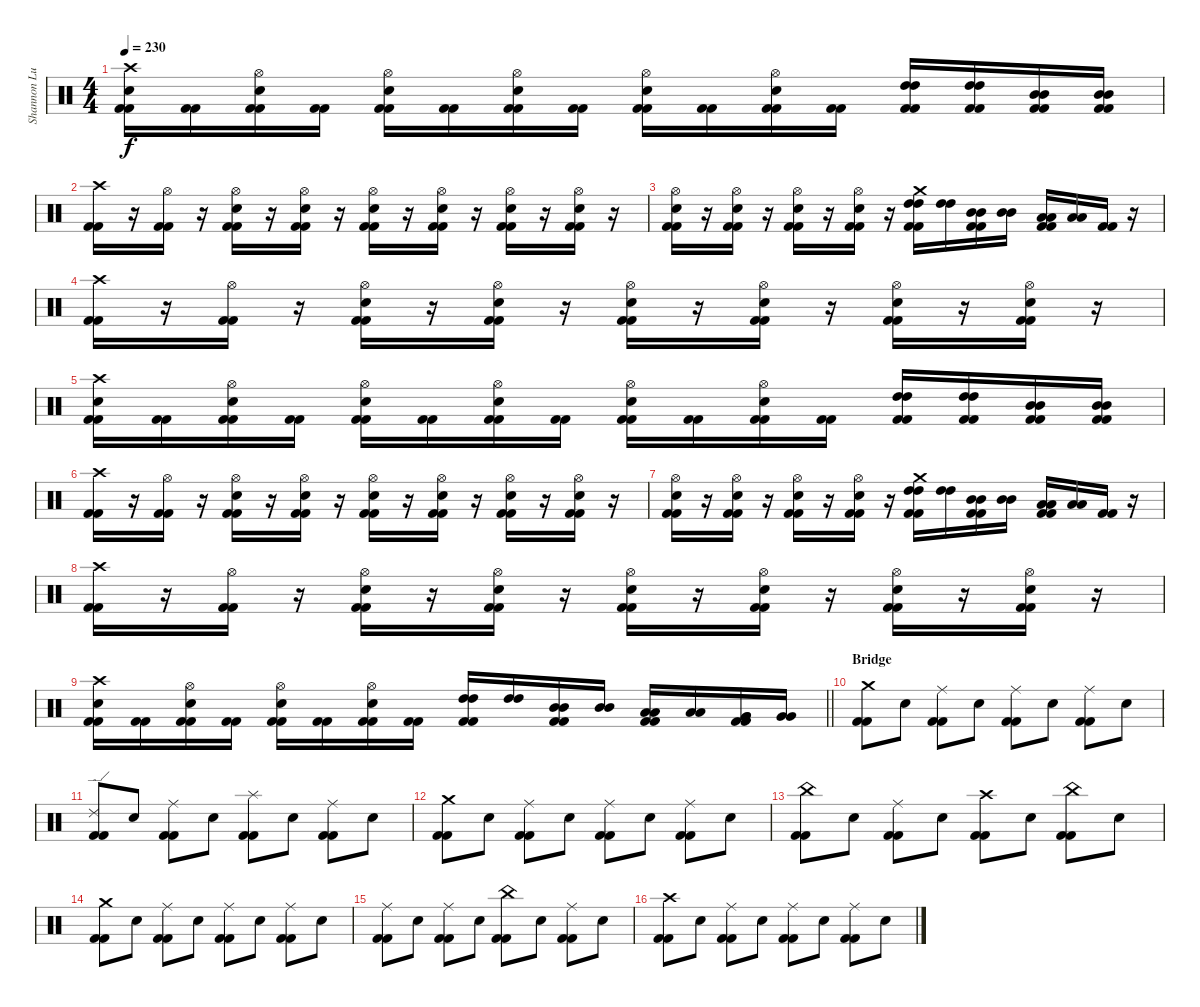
\track ("Shannon Lucas" "Shannon Lu") {instrument percussion}
\staff {score}
\articulation defaults
\ts (4 4)
\tempo 230
\clef neutral
\ks c
("Crash high (hit)" "Electric Snare (hit)" "Kick (hit) 2" "Kick (hit) 2").16{dy f} ("Kick (hit) 2" "Kick (hit) 2").16 ("Hi-Hat (open)" "Electric Snare (hit)" "Kick (hit) 2" "Kick (hit) 2").16 ("Kick (hit) 2" "Kick (hit) 2").16 ("Hi-Hat (open)" "Electric Snare (hit)" "Kick (hit) 2" "Kick (hit) 2").16 ("Kick (hit) 2" "Kick (hit) 2").16 ("Hi-Hat (open)" "Electric Snare (hit)" "Kick (hit) 2" "Kick (hit) 2").16 ("Kick (hit) 2" "Kick (hit) 2").16 ("Hi-Hat (open)" "Electric Snare (hit)" "Kick (hit) 2" "Kick (hit) 2").16 ("Kick (hit) 2" "Kick (hit) 2").16 ("Hi-Hat (open)" "Electric Snare (hit)" "Kick (hit) 2" "Kick (hit) 2").16 ("Kick (hit) 2" "Kick (hit) 2").16 ("High Tom (hit)" "High Tom (hit)" "Kick (hit) 2" "Kick (hit) 2").16 ("High Tom (hit)" "High Tom (hit)" "Kick (hit) 2" "Kick (hit) 2").16 ("Mid Tom (hit)" "Mid Tom (hit)" "Kick (hit) 2" "Kick (hit) 2").16 ("Mid Tom (hit)" "Mid Tom (hit)" "Kick (hit) 2" "Kick (hit) 2").16 |
("Crash high (hit)" "Kick (hit) 2" "Kick (hit) 2").16 r.16 ("Hi-Hat (open)" "Kick (hit) 2" "Kick (hit) 2").16 r.16 ("Hi-Hat (open)" "Electric Snare (hit)" "Kick (hit) 2" "Kick (hit) 2").16 r.16 ("Hi-Hat (open)" "Electric Snare (hit)" "Kick (hit) 2" "Kick (hit) 2").16 r.16 ("Hi-Hat (open)" "Electric Snare (hit)" "Kick (hit) 2" "Kick (hit) 2").16 r.16 ("Hi-Hat (open)" "Electric Snare (hit)" "Kick (hit) 2" "Kick (hit) 2").16 r.16 ("Hi-Hat (open)" "Electric Snare (hit)" "Kick (hit) 2" "Kick (hit) 2").16 r.16 ("Hi-Hat (open)" "Electric Snare (hit)" "Kick (hit) 2" "Kick (hit) 2").16 r.16 |
("Hi-Hat (open)" "Electric Snare (hit)" "Kick (hit) 2" "Kick (hit) 2").16 r.16 ("Hi-Hat (open)" "Electric Snare (hit)" "Kick (hit) 2" "Kick (hit) 2").16 r.16 ("Hi-Hat (open)" "Electric Snare (hit)" "Kick (hit) 2" "Kick (hit) 2").16 r.16 ("Hi-Hat (open)" "Electric Snare (hit)" "Kick (hit) 2" "Kick (hit) 2").16 r.16 ("Crash medium (hit)" "High Tom (hit)" "High Tom (hit)" "Kick (hit) 2" "Kick (hit) 2").16 ("High Tom (hit)" "High Tom (hit)").16 ("Mid Tom (hit)" "Mid Tom (hit)" "Kick (hit) 2" "Kick (hit) 2").16 ("Mid Tom (hit)" "Mid Tom (hit)").16 ("Low Tom (hit)" "Low Tom (hit)" "Kick (hit) 2" "Kick (hit) 2").16 ("Low Tom (hit)" "Low Tom (hit)").16 ("Kick (hit) 2" "Kick (hit) 2").16 r.16 |
("Crash high (hit)" "Kick (hit) 2" "Kick (hit) 2").16 r.16 ("Hi-Hat (open)" "Kick (hit) 2" "Kick (hit) 2").16 r.16 ("Hi-Hat (open)" "Electric Snare (hit)" "Kick (hit) 2" "Kick (hit) 2").16 r.16 ("Hi-Hat (open)" "Electric Snare (hit)" "Kick (hit) 2" "Kick (hit) 2").16 r.16 ("Hi-Hat (open)" "Electric Snare (hit)" "Kick (hit) 2" "Kick (hit) 2").16 r.16 ("Hi-Hat (open)" "Electric Snare (hit)" "Kick (hit) 2" "Kick (hit) 2").16 r.16 ("Hi-Hat (open)" "Electric Snare (hit)" "Kick (hit) 2" "Kick (hit) 2").16 r.16 ("Hi-Hat (open)" "Electric Snare (hit)" "Kick (hit) 2" "Kick (hit) 2").16 r.16 |
("Crash high (hit)" "Electric Snare (hit)" "Kick (hit) 2" "Kick (hit) 2").16 ("Kick (hit) 2" "Kick (hit) 2").16 ("Hi-Hat (open)" "Electric Snare (hit)" "Kick (hit) 2" "Kick (hit) 2").16 ("Kick (hit) 2" "Kick (hit) 2").16 ("Hi-Hat (open)" "Electric Snare (hit)" "Kick (hit) 2" "Kick (hit) 2").16 ("Kick (hit) 2" "Kick (hit) 2").16 ("Hi-Hat (open)" "Electric Snare (hit)" "Kick (hit) 2" "Kick (hit) 2").16 ("Kick (hit) 2" "Kick (hit) 2").16 ("Hi-Hat (open)" "Electric Snare (hit)" "Kick (hit) 2" "Kick (hit) 2").16 ("Kick (hit) 2" "Kick (hit) 2").16 ("Hi-Hat (open)" "Electric Snare (hit)" "Kick (hit) 2" "Kick (hit) 2").16 ("Kick (hit) 2" "Kick (hit) 2").16 ("High Tom (hit)" "High Tom (hit)" "Kick (hit) 2" "Kick (hit) 2").16 ("High Tom (hit)" "High Tom (hit)" "Kick (hit) 2" "Kick (hit) 2").16 ("Mid Tom (hit)" "Mid Tom (hit)" "Kick (hit) 2" "Kick (hit) 2").16 ("Mid Tom (hit)" "Mid Tom (hit)" "Kick (hit) 2" "Kick (hit) 2").16 |
("Crash high (hit)" "Kick (hit) 2" "Kick (hit) 2").16 r.16 ("Hi-Hat (open)" "Kick (hit) 2" "Kick (hit) 2").16 r.16 ("Hi-Hat (open)" "Electric Snare (hit)" "Kick (hit) 2" "Kick (hit) 2").16 r.16 ("Hi-Hat (open)" "Electric Snare (hit)" "Kick (hit) 2" "Kick (hit) 2").16 r.16 ("Hi-Hat (open)" "Electric Snare (hit)" "Kick (hit) 2" "Kick (hit) 2").16 r.16 ("Hi-Hat (open)" "Electric Snare (hit)" "Kick (hit) 2" "Kick (hit) 2").16 r.16 ("Hi-Hat (open)" "Electric Snare (hit)" "Kick (hit) 2" "Kick (hit) 2").16 r.16 ("Hi-Hat (open)" "Electric Snare (hit)" "Kick (hit) 2" "Kick (hit) 2").16 r.16 |
("Hi-Hat (open)" "Electric Snare (hit)" "Kick (hit) 2" "Kick (hit) 2").16 r.16 ("Hi-Hat (open)" "Electric Snare (hit)" "Kick (hit) 2" "Kick (hit) 2").16 r.16 ("Hi-Hat (open)" "Electric Snare (hit)" "Kick (hit) 2" "Kick (hit) 2").16 r.16 ("Hi-Hat (open)" "Electric Snare (hit)" "Kick (hit) 2" "Kick (hit) 2").16 r.16 ("Crash medium (hit)" "High Tom (hit)" "High Tom (hit)" "Kick (hit) 2" "Kick (hit) 2").16 ("High Tom (hit)" "High Tom (hit)").16 ("Mid Tom (hit)" "Mid Tom (hit)" "Kick (hit) 2" "Kick (hit) 2").16 ("Mid Tom (hit)" "Mid Tom (hit)").16 ("Low Tom (hit)" "Low Tom (hit)" "Kick (hit) 2" "Kick (hit) 2").16 ("Low Tom (hit)" "Low Tom (hit)").16 ("Kick (hit) 2" "Kick (hit) 2").16 r.16 |
("Crash high (hit)" "Kick (hit) 2" "Kick (hit) 2").16 r.16 ("Hi-Hat (open)" "Kick (hit) 2" "Kick (hit) 2").16 r.16 ("Hi-Hat (open)" "Electric Snare (hit)" "Kick (hit) 2" "Kick (hit) 2").16 r.16 ("Hi-Hat (open)" "Electric Snare (hit)" "Kick (hit) 2" "Kick (hit) 2").16 r.16 ("Hi-Hat (open)" "Electric Snare (hit)" "Kick (hit) 2" "Kick (hit) 2").16 r.16 ("Hi-Hat (open)" "Electric Snare (hit)" "Kick (hit) 2" "Kick (hit) 2").16 r.16 ("Hi-Hat (open)" "Electric Snare (hit)" "Kick (hit) 2" "Kick (hit) 2").16 r.16 ("Hi-Hat (open)" "Electric Snare (hit)" "Kick (hit) 2" "Kick (hit) 2").16 r.16 |
\barLineRight lightlight
("Crash high (hit)" "Electric Snare (hit)" "Kick (hit) 2" "Kick (hit) 2").16 ("Kick (hit) 2" "Kick (hit) 2").16 ("Hi-Hat (open)" "Electric Snare (hit)" "Kick (hit) 2" "Kick (hit) 2").16 ("Kick (hit) 2" "Kick (hit) 2").16 ("Hi-Hat (open)" "Electric Snare (hit)" "Kick (hit) 2" "Kick (hit) 2").16 ("Kick (hit) 2" "Kick (hit) 2").16 ("Hi-Hat (open)" "Electric Snare (hit)" "Kick (hit) 2" "Kick (hit) 2").16 ("Kick (hit) 2" "Kick (hit) 2").16 ("High Tom (hit)" "High Tom (hit)" "Kick (hit) 2" "Kick (hit) 2").16 ("High Tom (hit)" "High Tom (hit)").16 ("Mid Tom (hit)" "Mid Tom (hit)" "Kick (hit) 2" "Kick (hit) 2").16 ("Mid Tom (hit)" "Mid Tom (hit)").16 ("Low Tom (hit)" "Low Tom (hit)" "Kick (hit) 2" "Kick (hit) 2").16 ("Low Tom (hit)" "Low Tom (hit)").16 ("Very Low Tom (hit)" "Very Low Tom (hit)" "Kick (hit) 2" "Kick (hit) 2").16 ("Very Low Tom (hit)" "Very Low Tom (hit)").16 |
\section ("" "Bridge")
("Crash medium (hit)" "Kick (hit) 2" "Kick (hit) 2").8 "Electric Snare (hit)".8 ("Ride (middle)" "Kick (hit) 2" "Kick (hit) 2").8 "Electric Snare (hit)".8 ("Ride (middle)" "Kick (hit) 2" "Kick (hit) 2").8 "Electric Snare (hit)".8 ("Ride (middle)" "Kick (hit) 2" "Kick (hit) 2").8 "Electric Snare (hit)".8 |
("Ride (edge) 2" "Kick (hit) 2" "Kick (hit) 2").8 "Electric Snare (hit)".8 ("Ride (middle)" "Kick (hit) 2" "Kick (hit) 2").8 "Electric Snare (hit)".8 ("Splash (hit)" "Kick (hit) 2" "Kick (hit) 2").8 "Electric Snare (hit)".8 ("Ride (middle)" "Kick (hit) 2" "Kick (hit) 2").8 "Electric Snare (hit)".8 |
("Crash medium (hit)" "Kick (hit) 2" "Kick (hit) 2").8 "Electric Snare (hit)".8 ("Ride (middle)" "Kick (hit) 2" "Kick (hit) 2").8 "Electric Snare (hit)".8 ("Ride (middle)" "Kick (hit) 2" "Kick (hit) 2").8 "Electric Snare (hit)".8 ("Ride (middle)" "Kick (hit) 2" "Kick (hit) 2").8 "Electric Snare (hit)".8 |
("China (hit)" "Kick (hit) 2" "Kick (hit) 2").8 "Electric Snare (hit)".8 ("Ride (middle)" "Kick (hit) 2" "Kick (hit) 2").8 "Electric Snare (hit)".8 ("Crash high (hit)" "Kick (hit) 2" "Kick (hit) 2").8 "Electric Snare (hit)".8 ("China (hit)" "Kick (hit) 2" "Kick (hit) 2").8 "Electric Snare (hit)".8 |
("Crash medium (hit)" "Kick (hit) 2" "Kick (hit) 2").8 "Electric Snare (hit)".8 ("Ride (middle)" "Kick (hit) 2" "Kick (hit) 2").8 "Electric Snare (hit)".8 ("Ride (middle)" "Kick (hit) 2" "Kick (hit) 2").8 "Electric Snare (hit)".8 ("Ride (middle)" "Kick (hit) 2" "Kick (hit) 2").8 "Electric Snare (hit)".8 |
("Ride (middle)" "Kick (hit) 2" "Kick (hit) 2").8 "Electric Snare (hit)".8 ("Ride (middle)" "Kick (hit) 2" "Kick (hit) 2").8 "Electric Snare (hit)".8 ("China (hit)" "Kick (hit) 2" "Kick (hit) 2").8 "Electric Snare (hit)".8 ("Ride (middle)" "Kick (hit) 2" "Kick (hit) 2").8 "Electric Snare (hit)".8 |
("Crash high (hit)" "Kick (hit) 2" "Kick (hit) 2").8 "Electric Snare (hit)".8 ("Ride (middle)" "Kick (hit) 2" "Kick (hit) 2").8 "Electric Snare (hit)".8 ("Ride (middle)" "Kick (hit) 2" "Kick (hit) 2").8 "Electric Snare (hit)".8 ("Ride (middle)" "Kick (hit) 2" "Kick (hit) 2").8 "Electric Snare (hit)".8
